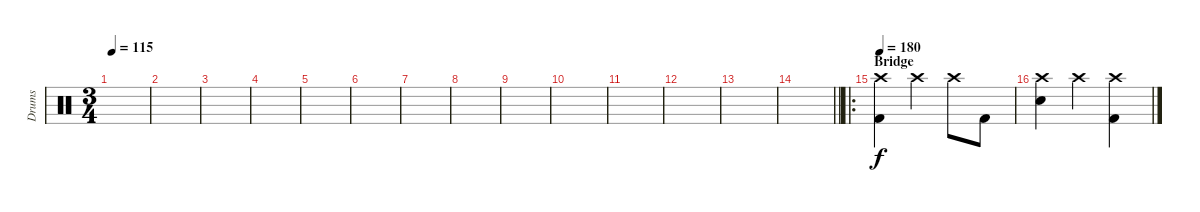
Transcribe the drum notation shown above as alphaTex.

\track ("Drums" "Drums") {instrument percussion}
\staff {score}
\articulation defaults
\ts (3 4)
\tempo 115
\clef neutral
\ks c
|
|
|
|
|
|
|
|
|
|
|
|
|
\barLineRight lightlight
|
\ro
\section ("" "Bridge")
\tempo 180
("Crash high (hit)" "Kick (hit) 2").4 "Crash high (hit)".4 "Crash high (hit)".8 "Kick (hit) 2".8 |
("Crash high (hit)" "Electric Snare (hit)").4 "Crash high (hit)".4 ("Crash high (hit)" "Kick (hit) 2").4
